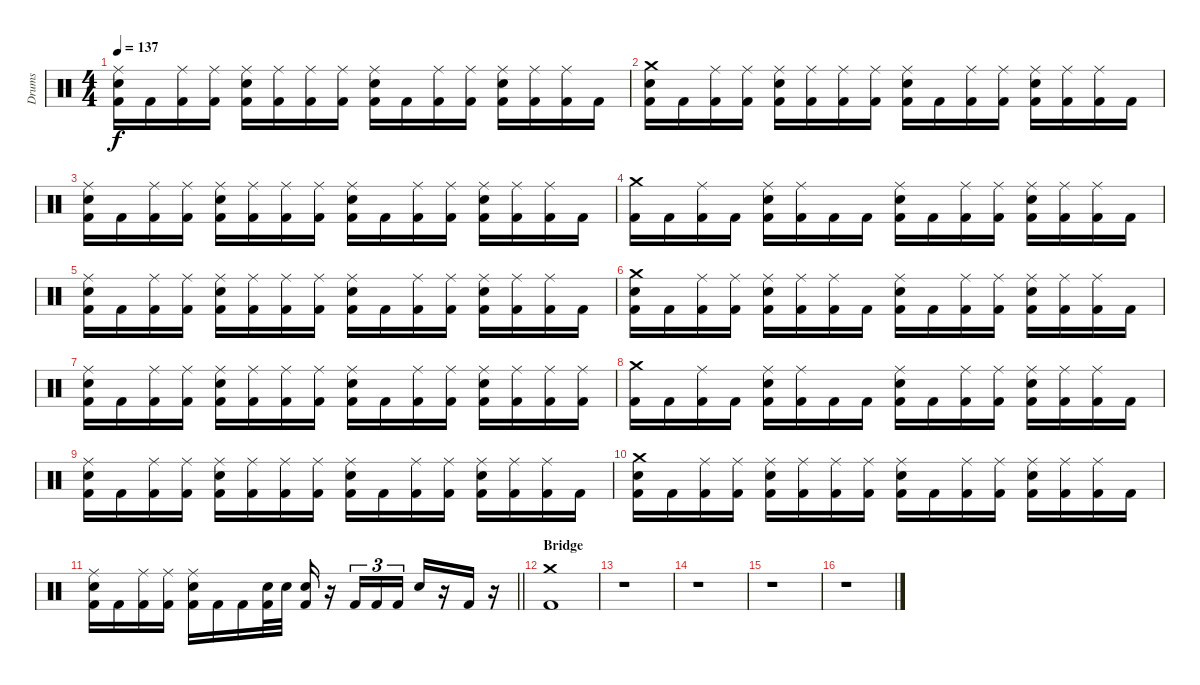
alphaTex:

\track ("Drums" "Drums") {instrument percussion}
\staff {score}
\articulation defaults
\ts (4 4)
\tempo 137
\clef neutral
\ks c
("Ride (middle)" "Electric Snare (hit)" "Kick (hit) 2").16{dy f} "Kick (hit) 2".16 ("Ride (middle)" "Kick (hit) 2").16 ("Ride (middle)" "Kick (hit) 2").16 ("Ride (middle)" "Electric Snare (hit)" "Kick (hit) 2").16 ("Ride (middle)" "Kick (hit) 2").16 ("Ride (middle)" "Kick (hit) 2").16 ("Ride (middle)" "Kick (hit) 2").16 ("Ride (middle)" "Electric Snare (hit)" "Kick (hit) 2").16 "Kick (hit) 2".16 ("Ride (middle)" "Kick (hit) 2").16 ("Ride (middle)" "Kick (hit) 2").16 ("Ride (middle)" "Electric Snare (hit)" "Kick (hit) 2").16 ("Ride (middle)" "Kick (hit) 2").16 ("Ride (middle)" "Kick (hit) 2").16 "Kick (hit) 2".16 |
("Crash medium (hit)" "Electric Snare (hit)" "Kick (hit) 2").16 "Kick (hit) 2".16 ("Ride (middle)" "Kick (hit) 2").16 ("Ride (middle)" "Kick (hit) 2").16 ("Ride (middle)" "Electric Snare (hit)" "Kick (hit) 2").16 ("Ride (middle)" "Kick (hit) 2").16 ("Ride (middle)" "Kick (hit) 2").16 ("Ride (middle)" "Kick (hit) 2").16 ("Ride (middle)" "Electric Snare (hit)" "Kick (hit) 2").16 "Kick (hit) 2".16 ("Ride (middle)" "Kick (hit) 2").16 ("Ride (middle)" "Kick (hit) 2").16 ("Ride (middle)" "Electric Snare (hit)" "Kick (hit) 2").16 ("Ride (middle)" "Kick (hit) 2").16 ("Ride (middle)" "Kick (hit) 2").16 "Kick (hit) 2".16 |
("Ride (middle)" "Electric Snare (hit)" "Kick (hit) 2").16 "Kick (hit) 2".16 ("Ride (middle)" "Kick (hit) 2").16 ("Ride (middle)" "Kick (hit) 2").16 ("Ride (middle)" "Electric Snare (hit)" "Kick (hit) 2").16 ("Ride (middle)" "Kick (hit) 2").16 ("Ride (middle)" "Kick (hit) 2").16 ("Ride (middle)" "Kick (hit) 2").16 ("Ride (middle)" "Electric Snare (hit)" "Kick (hit) 2").16 "Kick (hit) 2".16 ("Ride (middle)" "Kick (hit) 2").16 ("Ride (middle)" "Kick (hit) 2").16 ("Ride (middle)" "Electric Snare (hit)" "Kick (hit) 2").16 ("Ride (middle)" "Kick (hit) 2").16 ("Ride (middle)" "Kick (hit) 2").16 "Kick (hit) 2".16 |
("Crash medium (hit)" "Kick (hit) 2").16 "Kick (hit) 2".16 ("Ride (middle)" "Kick (hit) 2").16 "Kick (hit) 2".16 ("Ride (middle)" "Electric Snare (hit)" "Kick (hit) 2").16 ("Ride (middle)" "Kick (hit) 2").16 "Kick (hit) 2".16 "Kick (hit) 2".16 ("Ride (middle)" "Electric Snare (hit)" "Kick (hit) 2").16 "Kick (hit) 2".16 ("Ride (middle)" "Kick (hit) 2").16 ("Ride (middle)" "Kick (hit) 2").16 ("Ride (middle)" "Electric Snare (hit)" "Kick (hit) 2").16 ("Ride (middle)" "Kick (hit) 2").16 ("Ride (middle)" "Kick (hit) 2").16 "Kick (hit) 2".16 |
("Ride (middle)" "Electric Snare (hit)" "Kick (hit) 2").16 "Kick (hit) 2".16 ("Ride (middle)" "Kick (hit) 2").16 ("Ride (middle)" "Kick (hit) 2").16 ("Ride (middle)" "Electric Snare (hit)" "Kick (hit) 2").16 ("Ride (middle)" "Kick (hit) 2").16 ("Ride (middle)" "Kick (hit) 2").16 ("Ride (middle)" "Kick (hit) 2").16 ("Ride (middle)" "Electric Snare (hit)" "Kick (hit) 2").16 "Kick (hit) 2".16 ("Ride (middle)" "Kick (hit) 2").16 ("Ride (middle)" "Kick (hit) 2").16 ("Ride (middle)" "Electric Snare (hit)" "Kick (hit) 2").16 ("Ride (middle)" "Kick (hit) 2").16 ("Ride (middle)" "Kick (hit) 2").16 "Kick (hit) 2".16 |
("Crash medium (hit)" "Electric Snare (hit)" "Kick (hit) 2").16 "Kick (hit) 2".16 ("Ride (middle)" "Kick (hit) 2").16 ("Ride (middle)" "Kick (hit) 2").16 ("Ride (middle)" "Electric Snare (hit)" "Kick (hit) 2").16 ("Ride (middle)" "Kick (hit) 2").16 ("Ride (middle)" "Kick (hit) 2").16 "Kick (hit) 2".16 ("Ride (middle)" "Electric Snare (hit)" "Kick (hit) 2").16 "Kick (hit) 2".16 ("Ride (middle)" "Kick (hit) 2").16 ("Ride (middle)" "Kick (hit) 2").16 ("Ride (middle)" "Electric Snare (hit)" "Kick (hit) 2").16 ("Ride (middle)" "Kick (hit) 2").16 ("Ride (middle)" "Kick (hit) 2").16 "Kick (hit) 2".16 |
("Ride (middle)" "Electric Snare (hit)" "Kick (hit) 2").16 "Kick (hit) 2".16 ("Ride (middle)" "Kick (hit) 2").16 ("Ride (middle)" "Kick (hit) 2").16 ("Ride (middle)" "Electric Snare (hit)" "Kick (hit) 2").16 ("Ride (middle)" "Kick (hit) 2").16 ("Ride (middle)" "Kick (hit) 2").16 ("Ride (middle)" "Kick (hit) 2").16 ("Ride (middle)" "Electric Snare (hit)" "Kick (hit) 2").16 "Kick (hit) 2".16 ("Ride (middle)" "Kick (hit) 2").16 ("Ride (middle)" "Kick (hit) 2").16 ("Ride (middle)" "Electric Snare (hit)" "Kick (hit) 2").16 ("Ride (middle)" "Kick (hit) 2").16 ("Ride (middle)" "Kick (hit) 2").16 ("Ride (middle)" "Kick (hit) 2").16 |
("Crash medium (hit)" "Kick (hit) 2").16 "Kick (hit) 2".16 ("Ride (middle)" "Kick (hit) 2").16 "Kick (hit) 2".16 ("Ride (middle)" "Electric Snare (hit)" "Kick (hit) 2").16 ("Ride (middle)" "Kick (hit) 2").16 "Kick (hit) 2".16 "Kick (hit) 2".16 ("Ride (middle)" "Electric Snare (hit)" "Kick (hit) 2").16 "Kick (hit) 2".16 ("Ride (middle)" "Kick (hit) 2").16 ("Ride (middle)" "Kick (hit) 2").16 ("Ride (middle)" "Electric Snare (hit)" "Kick (hit) 2").16 ("Ride (middle)" "Kick (hit) 2").16 ("Ride (middle)" "Kick (hit) 2").16 "Kick (hit) 2".16 |
("Ride (middle)" "Electric Snare (hit)" "Kick (hit) 2").16 "Kick (hit) 2".16 ("Ride (middle)" "Kick (hit) 2").16 ("Ride (middle)" "Kick (hit) 2").16 ("Ride (middle)" "Electric Snare (hit)" "Kick (hit) 2").16 ("Ride (middle)" "Kick (hit) 2").16 ("Ride (middle)" "Kick (hit) 2").16 ("Ride (middle)" "Kick (hit) 2").16 ("Ride (middle)" "Electric Snare (hit)" "Kick (hit) 2").16 "Kick (hit) 2".16 ("Ride (middle)" "Kick (hit) 2").16 ("Ride (middle)" "Kick (hit) 2").16 ("Ride (middle)" "Electric Snare (hit)" "Kick (hit) 2").16 ("Ride (middle)" "Kick (hit) 2").16 ("Ride (middle)" "Kick (hit) 2").16 "Kick (hit) 2".16 |
("Crash medium (hit)" "Electric Snare (hit)" "Kick (hit) 2").16 "Kick (hit) 2".16 ("Ride (middle)" "Kick (hit) 2").16 ("Ride (middle)" "Kick (hit) 2").16 ("Ride (middle)" "Electric Snare (hit)" "Kick (hit) 2").16 ("Ride (middle)" "Kick (hit) 2").16 ("Ride (middle)" "Kick (hit) 2").16 ("Ride (middle)" "Kick (hit) 2").16 ("Ride (middle)" "Electric Snare (hit)" "Kick (hit) 2").16 "Kick (hit) 2".16 ("Ride (middle)" "Kick (hit) 2").16 ("Ride (middle)" "Kick (hit) 2").16 ("Ride (middle)" "Electric Snare (hit)" "Kick (hit) 2").16 ("Ride (middle)" "Kick (hit) 2").16 ("Ride (middle)" "Kick (hit) 2").16 "Kick (hit) 2".16 |
\barLineRight lightlight
("Ride (middle)" "Electric Snare (hit)" "Kick (hit) 2").16 "Kick (hit) 2".16 ("Ride (middle)" "Kick (hit) 2").16 ("Ride (middle)" "Kick (hit) 2").16 ("Ride (middle)" "Electric Snare (hit)" "Kick (hit) 2").16 "Kick (hit) 2".16 "Kick (hit) 2".16 ("Electric Snare (hit)" "Kick (hit) 2").32 "Electric Snare (hit)".32 ("Electric Snare (hit)" "Kick (hit) 2").16 r.16 "Kick (hit) 2".16{tu (3 2)} "Kick (hit) 2".16{tu (3 2)} "Kick (hit) 2".16{tu (3 2)} "Electric Snare (hit)".16 r.16 "Kick (hit) 2".16 r.16 |
\section ("" "Bridge")
("Crash medium (hit)" "Kick (hit) 2").1 |
r.1 |
r.1 |
r.1 |
r.1
